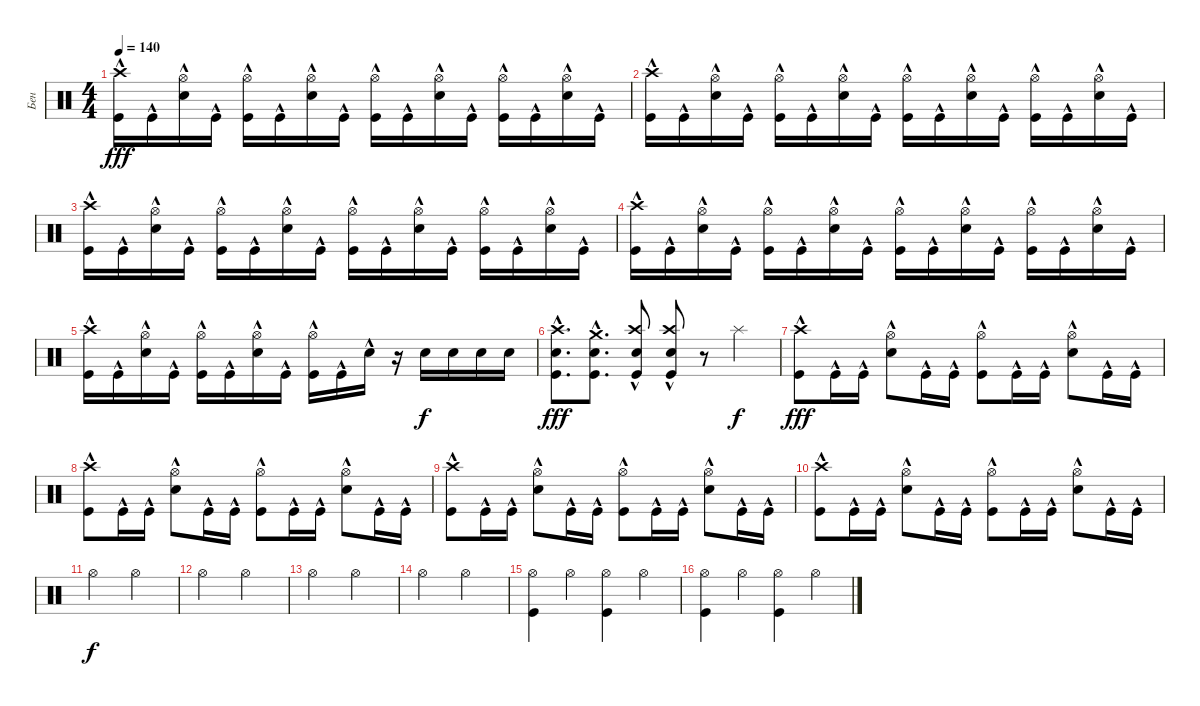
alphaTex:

\track ("Бен" "Бен") {instrument percussion}
\staff {score}
\articulation defaults
\ts (4 4)
\tempo 140
\clef neutral
\ks c
("Kick (hit)"{hac} "Crash high (hit)"{hac}).16{dy fff} "Kick (hit)"{hac}.16 ("Snare (hit) 2"{hac} "Hi-Hat (open)").16 "Kick (hit)"{hac}.16 ("Kick (hit)"{hac} "Hi-Hat (open)").16 "Kick (hit)"{hac}.16 ("Snare (hit) 2"{hac} "Hi-Hat (open)").16 "Kick (hit)"{hac}.16 ("Kick (hit)"{hac} "Hi-Hat (open)").16 "Kick (hit)"{hac}.16 ("Snare (hit) 2"{hac} "Hi-Hat (open)").16 "Kick (hit)"{hac}.16 ("Kick (hit)"{hac} "Hi-Hat (open)").16 "Kick (hit)"{hac}.16 ("Snare (hit) 2"{hac} "Hi-Hat (open)").16 "Kick (hit)"{hac}.16 |
("Kick (hit)"{hac} "Crash high (hit)"{hac}).16 "Kick (hit)"{hac}.16 ("Snare (hit) 2"{hac} "Hi-Hat (open)").16 "Kick (hit)"{hac}.16 ("Kick (hit)"{hac} "Hi-Hat (open)").16 "Kick (hit)"{hac}.16 ("Snare (hit) 2"{hac} "Hi-Hat (open)").16 "Kick (hit)"{hac}.16 ("Kick (hit)"{hac} "Hi-Hat (open)").16 "Kick (hit)"{hac}.16 ("Snare (hit) 2"{hac} "Hi-Hat (open)").16 "Kick (hit)"{hac}.16 ("Kick (hit)"{hac} "Hi-Hat (open)").16 "Kick (hit)"{hac}.16 ("Snare (hit) 2"{hac} "Hi-Hat (open)").16 "Kick (hit)"{hac}.16 |
("Kick (hit)"{hac} "Crash high (hit)"{hac}).16 "Kick (hit)"{hac}.16 ("Snare (hit) 2"{hac} "Hi-Hat (open)").16 "Kick (hit)"{hac}.16 ("Kick (hit)"{hac} "Hi-Hat (open)").16 "Kick (hit)"{hac}.16 ("Snare (hit) 2"{hac} "Hi-Hat (open)").16 "Kick (hit)"{hac}.16 ("Kick (hit)"{hac} "Hi-Hat (open)").16 "Kick (hit)"{hac}.16 ("Snare (hit) 2"{hac} "Hi-Hat (open)").16 "Kick (hit)"{hac}.16 ("Kick (hit)"{hac} "Hi-Hat (open)").16 "Kick (hit)"{hac}.16 ("Snare (hit) 2"{hac} "Hi-Hat (open)").16 "Kick (hit)"{hac}.16 |
("Kick (hit)"{hac} "Crash high (hit)"{hac}).16 "Kick (hit)"{hac}.16 ("Snare (hit) 2"{hac} "Hi-Hat (open)").16 "Kick (hit)"{hac}.16 ("Kick (hit)"{hac} "Hi-Hat (open)").16 "Kick (hit)"{hac}.16 ("Snare (hit) 2"{hac} "Hi-Hat (open)").16 "Kick (hit)"{hac}.16 ("Kick (hit)"{hac} "Hi-Hat (open)").16 "Kick (hit)"{hac}.16 ("Snare (hit) 2"{hac} "Hi-Hat (open)").16 "Kick (hit)"{hac}.16 ("Kick (hit)"{hac} "Hi-Hat (open)").16 "Kick (hit)"{hac}.16 ("Snare (hit) 2"{hac} "Hi-Hat (open)").16 "Kick (hit)"{hac}.16 |
("Kick (hit)"{hac} "Crash high (hit)"{hac}).16 "Kick (hit)"{hac}.16 ("Snare (hit) 2"{hac} "Hi-Hat (open)").16 "Kick (hit)"{hac}.16 ("Kick (hit)"{hac} "Hi-Hat (open)").16 "Kick (hit)"{hac}.16 ("Snare (hit) 2"{hac} "Hi-Hat (open)").16 "Kick (hit)"{hac}.16 ("Kick (hit)"{hac} "Hi-Hat (open)").16 "Kick (hit)"{hac}.16 "Snare (hit) 2"{hac}.16 r.16 "Snare (hit) 2".16{dy f} "Snare (hit) 2".16 "Snare (hit) 2".16 "Snare (hit) 2".16 |
("Snare (hit) 2"{hac} "Crash high (hit)"{hac} "Kick (hit)"{hac}).8{d dy fff} ("Snare (hit) 2"{hac} "Crash medium (hit)"{hac} "Kick (hit)"{hac}).8{d} ("Snare (hit) 2"{hac} "Crash high (hit)"{hac} "Kick (hit)"{hac}).8 ("Snare (hit) 2"{hac} "Crash high (hit)"{hac} "Kick (hit)"{hac}).8 r.8 "Splash (hit)".4{dy f} |
("Kick (hit)"{hac} "Crash high (hit)"{hac}).8{dy fff} "Kick (hit)"{hac}.16 "Kick (hit)"{hac}.16 ("Snare (hit) 2"{hac} "Hi-Hat (open)").8 "Kick (hit)"{hac}.16 "Kick (hit)"{hac}.16 ("Kick (hit)"{hac} "Hi-Hat (open)").8 "Kick (hit)"{hac}.16 "Kick (hit)"{hac}.16 ("Snare (hit) 2"{hac} "Hi-Hat (open)").8 "Kick (hit)"{hac}.16 "Kick (hit)"{hac}.16 |
("Kick (hit)"{hac} "Crash high (hit)"{hac}).8 "Kick (hit)"{hac}.16 "Kick (hit)"{hac}.16 ("Snare (hit) 2"{hac} "Hi-Hat (open)").8 "Kick (hit)"{hac}.16 "Kick (hit)"{hac}.16 ("Kick (hit)"{hac} "Hi-Hat (open)").8 "Kick (hit)"{hac}.16 "Kick (hit)"{hac}.16 ("Snare (hit) 2"{hac} "Hi-Hat (open)").8 "Kick (hit)"{hac}.16 "Kick (hit)"{hac}.16 |
("Kick (hit)"{hac} "Crash high (hit)"{hac}).8 "Kick (hit)"{hac}.16 "Kick (hit)"{hac}.16 ("Snare (hit) 2"{hac} "Hi-Hat (open)").8 "Kick (hit)"{hac}.16 "Kick (hit)"{hac}.16 ("Kick (hit)"{hac} "Hi-Hat (open)").8 "Kick (hit)"{hac}.16 "Kick (hit)"{hac}.16 ("Snare (hit) 2"{hac} "Hi-Hat (open)").8 "Kick (hit)"{hac}.16 "Kick (hit)"{hac}.16 |
("Kick (hit)"{hac} "Crash high (hit)"{hac}).8 "Kick (hit)"{hac}.16 "Kick (hit)"{hac}.16 ("Snare (hit) 2"{hac} "Hi-Hat (open)").8 "Kick (hit)"{hac}.16 "Kick (hit)"{hac}.16 ("Kick (hit)"{hac} "Hi-Hat (open)").8 "Kick (hit)"{hac}.16 "Kick (hit)"{hac}.16 ("Snare (hit) 2"{hac} "Hi-Hat (open)").8 "Kick (hit)"{hac}.16 "Kick (hit)"{hac}.16 |
"Hi-Hat (open)".2{dy f} "Hi-Hat (open)".2 |
"Hi-Hat (open)".2 "Hi-Hat (open)".2 |
"Hi-Hat (open)".2 "Hi-Hat (open)".2 |
"Hi-Hat (open)".2 "Hi-Hat (open)".2 |
("Kick (hit)" "Hi-Hat (open)").4 "Hi-Hat (open)".4 ("Hi-Hat (open)" "Kick (hit)").4 "Hi-Hat (open)".4 |
("Kick (hit)" "Hi-Hat (open)").4 "Hi-Hat (open)".4 ("Hi-Hat (open)" "Kick (hit)").4 "Hi-Hat (open)".4
